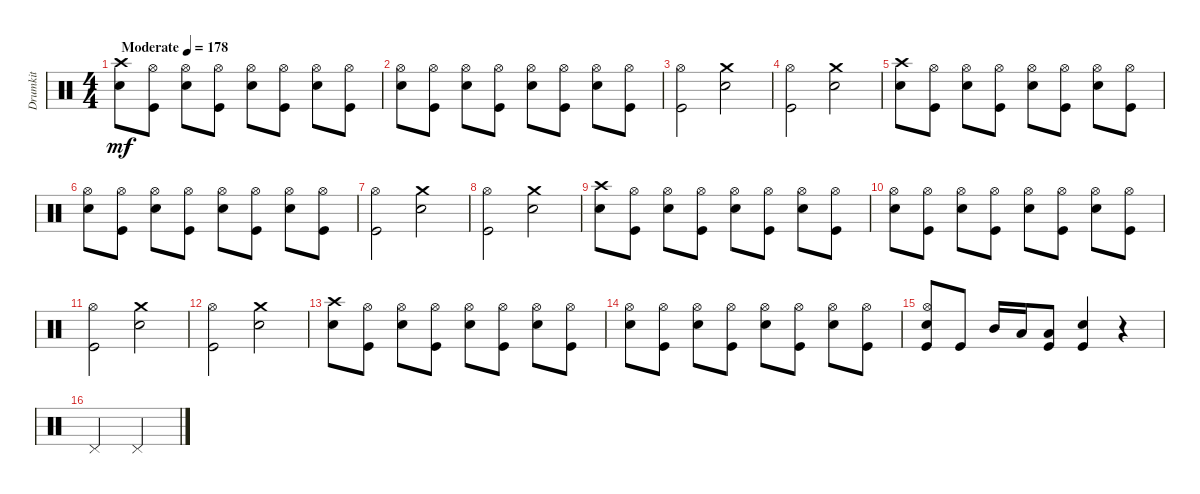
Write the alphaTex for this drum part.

\track ("Drumkit" "Drumkit") {instrument percussion}
\staff {score}
\articulation defaults
\ts (4 4)
\tempo (178 "Moderate")
\clef neutral
\ks c
("Crash high (hit)" "Snare (hit) 2").8{dy mf} ("Hi-Hat (open)" "Kick (hit)").8 ("Hi-Hat (open)" "Snare (hit) 2").8 ("Hi-Hat (open)" "Kick (hit)").8 ("Hi-Hat (open)" "Snare (hit) 2").8 ("Hi-Hat (open)" "Kick (hit)").8 ("Hi-Hat (open)" "Snare (hit) 2").8 ("Hi-Hat (open)" "Kick (hit)").8 |
("Hi-Hat (open)" "Snare (hit) 2").8 ("Hi-Hat (open)" "Kick (hit)").8 ("Hi-Hat (open)" "Snare (hit) 2").8 ("Hi-Hat (open)" "Kick (hit)").8 ("Hi-Hat (open)" "Snare (hit) 2").8 ("Hi-Hat (open)" "Kick (hit)").8 ("Hi-Hat (open)" "Snare (hit) 2").8 ("Hi-Hat (open)" "Kick (hit)").8 |
("Hi-Hat (open)" "Kick (hit)").2 ("Snare (hit) 2" "Crash medium (hit)").2 |
("Hi-Hat (open)" "Kick (hit)").2 ("Snare (hit) 2" "Crash medium (hit)").2 |
("Crash high (hit)" "Snare (hit) 2").8 ("Hi-Hat (open)" "Kick (hit)").8 ("Hi-Hat (open)" "Snare (hit) 2").8 ("Hi-Hat (open)" "Kick (hit)").8 ("Hi-Hat (open)" "Snare (hit) 2").8 ("Hi-Hat (open)" "Kick (hit)").8 ("Hi-Hat (open)" "Snare (hit) 2").8 ("Hi-Hat (open)" "Kick (hit)").8 |
("Hi-Hat (open)" "Snare (hit) 2").8 ("Hi-Hat (open)" "Kick (hit)").8 ("Hi-Hat (open)" "Snare (hit) 2").8 ("Hi-Hat (open)" "Kick (hit)").8 ("Hi-Hat (open)" "Snare (hit) 2").8 ("Hi-Hat (open)" "Kick (hit)").8 ("Hi-Hat (open)" "Snare (hit) 2").8 ("Hi-Hat (open)" "Kick (hit)").8 |
("Hi-Hat (open)" "Kick (hit)").2 ("Snare (hit) 2" "Crash medium (hit)").2 |
("Hi-Hat (open)" "Kick (hit)").2 ("Snare (hit) 2" "Crash medium (hit)").2 |
("Crash high (hit)" "Snare (hit) 2").8 ("Hi-Hat (open)" "Kick (hit)").8 ("Hi-Hat (open)" "Snare (hit) 2").8 ("Hi-Hat (open)" "Kick (hit)").8 ("Hi-Hat (open)" "Snare (hit) 2").8 ("Hi-Hat (open)" "Kick (hit)").8 ("Hi-Hat (open)" "Snare (hit) 2").8 ("Hi-Hat (open)" "Kick (hit)").8 |
("Hi-Hat (open)" "Snare (hit) 2").8 ("Hi-Hat (open)" "Kick (hit)").8 ("Hi-Hat (open)" "Snare (hit) 2").8 ("Hi-Hat (open)" "Kick (hit)").8 ("Hi-Hat (open)" "Snare (hit) 2").8 ("Hi-Hat (open)" "Kick (hit)").8 ("Hi-Hat (open)" "Snare (hit) 2").8 ("Hi-Hat (open)" "Kick (hit)").8 |
("Hi-Hat (open)" "Kick (hit)").2 ("Snare (hit) 2" "Crash medium (hit)").2 |
("Hi-Hat (open)" "Kick (hit)").2 ("Snare (hit) 2" "Crash medium (hit)").2 |
("Crash high (hit)" "Snare (hit) 2").8 ("Hi-Hat (open)" "Kick (hit)").8 ("Hi-Hat (open)" "Snare (hit) 2").8 ("Hi-Hat (open)" "Kick (hit)").8 ("Hi-Hat (open)" "Snare (hit) 2").8 ("Hi-Hat (open)" "Kick (hit)").8 ("Hi-Hat (open)" "Snare (hit) 2").8 ("Hi-Hat (open)" "Kick (hit)").8 |
("Hi-Hat (open)" "Snare (hit) 2").8 ("Hi-Hat (open)" "Kick (hit)").8 ("Hi-Hat (open)" "Snare (hit) 2").8 ("Hi-Hat (open)" "Kick (hit)").8 ("Hi-Hat (open)" "Snare (hit) 2").8 ("Hi-Hat (open)" "Kick (hit)").8 ("Hi-Hat (open)" "Snare (hit) 2").8 ("Hi-Hat (open)" "Kick (hit)").8 |
("Hi-Hat (open)" "Kick (hit)" "Snare (hit) 2").8 "Kick (hit)".8 "Mid Tom (hit)".16 "Low Tom (hit)".16 ("Kick (hit)" "Low Floor Tom (hit)").8 ("Snare (hit) 2" "Kick (hit)").4 r.4 |
"Pedal Hi-Hat (hit)".2 "Pedal Hi-Hat (hit)".2
